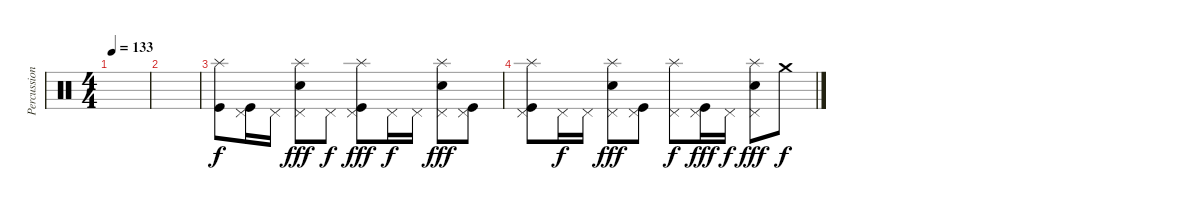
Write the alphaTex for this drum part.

\track ("Percussion" "Percussion") {instrument percussion}
\staff {score}
\articulation defaults
\ts (4 4)
\tempo 133
\clef neutral
\ks c
|
|
("Splash (hit)" "Kick (hit)").8 ("Pedal Hi-Hat (hit)" "Kick (hit)").16 "Pedal Hi-Hat (hit)".16{dy f} ("Snare (hit) 2" "Pedal Hi-Hat (hit)" "Splash (hit)").8{dy fff} "Pedal Hi-Hat (hit)".8{dy f} ("Pedal Hi-Hat (hit)" "Splash (hit)" "Kick (hit)").8{dy fff} "Pedal Hi-Hat (hit)".16{dy f} "Pedal Hi-Hat (hit)".16 ("Snare (hit) 2" "Pedal Hi-Hat (hit)" "Splash (hit)").8{dy fff} ("Pedal Hi-Hat (hit)" "Kick (hit)").8 |
("Pedal Hi-Hat (hit)" "Splash (hit)" "Kick (hit)").8 "Pedal Hi-Hat (hit)".16{dy f} "Pedal Hi-Hat (hit)".16 ("Snare (hit) 2" "Pedal Hi-Hat (hit)" "Splash (hit)").8{dy fff} ("Pedal Hi-Hat (hit)" "Kick (hit)").8 ("Pedal Hi-Hat (hit)" "Splash (hit)").8{dy f} ("Pedal Hi-Hat (hit)" "Kick (hit)").16{dy fff} "Pedal Hi-Hat (hit)".16{dy f} ("Snare (hit) 2" "Pedal Hi-Hat (hit)" "Splash (hit)").8{dy fff} "Crash medium (hit)".8{dy f}
